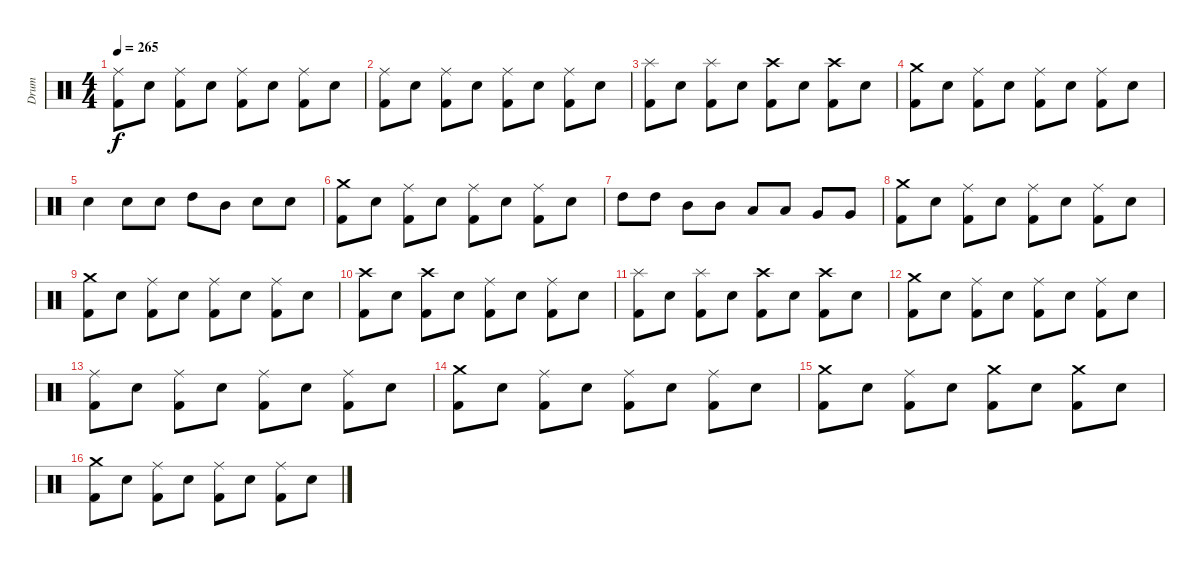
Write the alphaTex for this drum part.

\track ("Drum" "Drum") {instrument percussion}
\staff {score}
\articulation defaults
\ts (4 4)
\tempo 265
\clef neutral
\ks c
("Ride (middle)" "Kick (hit) 2").8{dy f} "Snare (hit) 2".8 ("Ride (middle)" "Kick (hit) 2").8 "Snare (hit) 2".8 ("Ride (middle)" "Kick (hit) 2").8 "Snare (hit) 2".8 ("Ride (middle)" "Kick (hit) 2").8 "Snare (hit) 2".8 |
("Ride (middle)" "Kick (hit) 2").8 "Snare (hit) 2".8 ("Ride (middle)" "Kick (hit) 2").8 "Snare (hit) 2".8 ("Ride (middle)" "Kick (hit) 2").8 "Snare (hit) 2".8 ("Ride (middle)" "Kick (hit) 2").8 "Snare (hit) 2".8 |
("Splash (hit)" "Kick (hit) 2").8 "Snare (hit) 2".8 ("Splash (hit)" "Kick (hit) 2").8 "Snare (hit) 2".8 ("Crash high (hit)" "Kick (hit) 2").8 "Snare (hit) 2".8 ("Crash high (hit)" "Kick (hit) 2").8 "Snare (hit) 2".8 |
("Crash medium (hit)" "Kick (hit) 2").8 "Snare (hit) 2".8 ("Ride (middle)" "Kick (hit) 2").8 "Snare (hit) 2".8 ("Ride (middle)" "Kick (hit) 2").8 "Snare (hit) 2".8 ("Ride (middle)" "Kick (hit) 2").8 "Snare (hit) 2".8 |
"Snare (hit) 2".4 "Snare (hit) 2".8 "Snare (hit) 2".8 "High Tom (hit)".8 "Mid Tom (hit)".8 "Snare (hit) 2".8 "Snare (hit) 2".8 |
("Crash medium (hit)" "Kick (hit) 2").8 "Snare (hit) 2".8 ("Ride (middle)" "Kick (hit) 2").8 "Snare (hit) 2".8 ("Ride (middle)" "Kick (hit) 2").8 "Snare (hit) 2".8 ("Ride (middle)" "Kick (hit) 2").8 "Snare (hit) 2".8 |
"High Tom (hit)".8 "High Tom (hit)".8 "Mid Tom (hit)".8 "Mid Tom (hit)".8 "Low Tom (hit)".8 "Low Tom (hit)".8 "Very Low Tom (hit)".8 "Very Low Tom (hit)".8 |
("Crash medium (hit)" "Kick (hit) 2").8 "Snare (hit) 2".8 ("Ride (middle)" "Kick (hit) 2").8 "Snare (hit) 2".8 ("Ride (middle)" "Kick (hit) 2").8 "Snare (hit) 2".8 ("Ride (middle)" "Kick (hit) 2").8 "Snare (hit) 2".8 |
("Crash medium (hit)" "Kick (hit) 2").8 "Snare (hit) 2".8 ("Ride (middle)" "Kick (hit) 2").8 "Snare (hit) 2".8 ("Ride (middle)" "Kick (hit) 2").8 "Snare (hit) 2".8 ("Ride (middle)" "Kick (hit) 2").8 "Snare (hit) 2".8 |
("Crash high (hit)" "Kick (hit) 2").8 "Snare (hit) 2".8 ("Crash high (hit)" "Kick (hit) 2").8 "Snare (hit) 2".8 ("Ride (middle)" "Kick (hit) 2").8 "Snare (hit) 2".8 ("Ride (middle)" "Kick (hit) 2").8 "Snare (hit) 2".8 |
("Splash (hit)" "Kick (hit) 2").8 "Snare (hit) 2".8 ("Splash (hit)" "Kick (hit) 2").8 "Snare (hit) 2".8 ("Crash high (hit)" "Kick (hit) 2").8 "Snare (hit) 2".8 ("Crash high (hit)" "Kick (hit) 2").8 "Snare (hit) 2".8 |
("Crash medium (hit)" "Kick (hit) 2").8 "Snare (hit) 2".8 ("Ride (middle)" "Kick (hit) 2").8 "Snare (hit) 2".8 ("Ride (middle)" "Kick (hit) 2").8 "Snare (hit) 2".8 ("Ride (middle)" "Kick (hit) 2").8 "Snare (hit) 2".8 |
("Ride (middle)" "Kick (hit) 2").8 "Snare (hit) 2".8 ("Ride (middle)" "Kick (hit) 2").8 "Snare (hit) 2".8 ("Ride (middle)" "Kick (hit) 2").8 "Snare (hit) 2".8 ("Ride (middle)" "Kick (hit) 2").8 "Snare (hit) 2".8 |
("Crash medium (hit)" "Kick (hit) 2").8 "Snare (hit) 2".8 ("Ride (middle)" "Kick (hit) 2").8 "Snare (hit) 2".8 ("Ride (middle)" "Kick (hit) 2").8 "Snare (hit) 2".8 ("Ride (middle)" "Kick (hit) 2").8 "Snare (hit) 2".8 |
("Crash medium (hit)" "Kick (hit) 2").8 "Snare (hit) 2".8 ("Ride (middle)" "Kick (hit) 2").8 "Snare (hit) 2".8 ("Crash medium (hit)" "Kick (hit) 2").8 "Snare (hit) 2".8 ("Crash medium (hit)" "Kick (hit) 2").8 "Snare (hit) 2".8 |
("Crash medium (hit)" "Kick (hit) 2").8 "Snare (hit) 2".8 ("Ride (middle)" "Kick (hit) 2").8 "Snare (hit) 2".8 ("Ride (middle)" "Kick (hit) 2").8 "Snare (hit) 2".8 ("Ride (middle)" "Kick (hit) 2").8 "Snare (hit) 2".8
